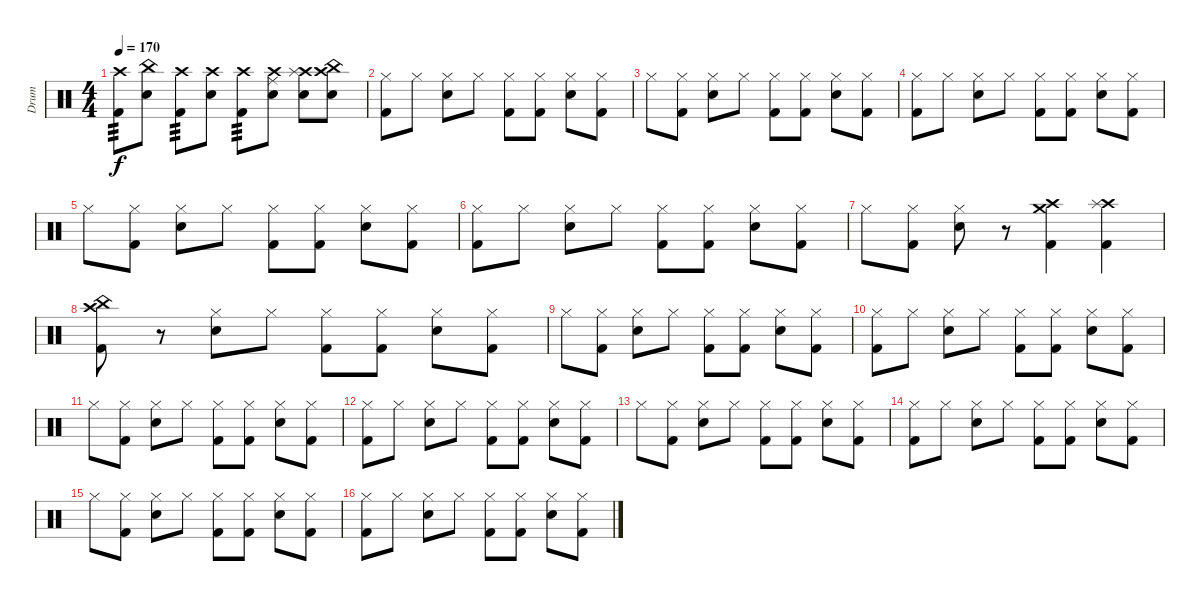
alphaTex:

\track ("Drum" "Drum") {instrument percussion}
\staff {score}
\articulation defaults
\ts (4 4)
\tempo 170
\clef neutral
\ks c
("Crash high (hit)" "Kick (hit) 2").8{tp 3 dy f} ("China (hit)" "Electric Snare (hit)").8 ("Crash high (hit)" "Kick (hit) 2").8{tp 3} ("Crash high (hit)" "Electric Snare (hit)").8 ("Crash high (hit)" "Kick (hit) 2").8{tp 3} ("Crash high (hit)" "Ride (middle)" "Electric Snare (hit)").8 ("Crash high (hit)" "Splash (hit)" "Electric Snare (hit)").8 ("Crash high (hit)" "China (hit)" "Electric Snare (hit)").8 |
("Hi-Hat (closed)" "Kick (hit) 2").8 "Hi-Hat (closed)".8 ("Hi-Hat (closed)" "Electric Snare (hit)").8 "Hi-Hat (closed)".8 ("Hi-Hat (closed)" "Kick (hit) 2").8 ("Hi-Hat (closed)" "Kick (hit) 2").8 ("Hi-Hat (closed)" "Electric Snare (hit)").8 ("Hi-Hat (closed)" "Kick (hit) 2").8 |
"Hi-Hat (closed)".8 ("Hi-Hat (closed)" "Kick (hit) 2").8 ("Hi-Hat (closed)" "Electric Snare (hit)").8 "Hi-Hat (closed)".8 ("Hi-Hat (closed)" "Kick (hit) 2").8 ("Hi-Hat (closed)" "Kick (hit) 2").8 ("Hi-Hat (closed)" "Electric Snare (hit)").8 ("Hi-Hat (closed)" "Kick (hit) 2").8 |
("Hi-Hat (closed)" "Kick (hit) 2").8 "Hi-Hat (closed)".8 ("Hi-Hat (closed)" "Electric Snare (hit)").8 "Hi-Hat (closed)".8 ("Hi-Hat (closed)" "Kick (hit) 2").8 ("Hi-Hat (closed)" "Kick (hit) 2").8 ("Hi-Hat (closed)" "Electric Snare (hit)").8 ("Hi-Hat (closed)" "Kick (hit) 2").8 |
"Hi-Hat (closed)".8 ("Hi-Hat (closed)" "Kick (hit) 2").8 ("Hi-Hat (closed)" "Electric Snare (hit)").8 "Hi-Hat (closed)".8 ("Hi-Hat (closed)" "Kick (hit) 2").8 ("Hi-Hat (closed)" "Kick (hit) 2").8 ("Hi-Hat (closed)" "Electric Snare (hit)").8 ("Hi-Hat (closed)" "Kick (hit) 2").8 |
("Hi-Hat (closed)" "Kick (hit) 2").8 "Hi-Hat (closed)".8 ("Hi-Hat (closed)" "Electric Snare (hit)").8 "Hi-Hat (closed)".8 ("Hi-Hat (closed)" "Kick (hit) 2").8 ("Hi-Hat (closed)" "Kick (hit) 2").8 ("Hi-Hat (closed)" "Electric Snare (hit)").8 ("Hi-Hat (closed)" "Kick (hit) 2").8 |
"Hi-Hat (closed)".8 ("Hi-Hat (closed)" "Kick (hit) 2").8 ("Hi-Hat (closed)" "Electric Snare (hit)").8 r.8 ("Crash high (hit)" "Crash medium (hit)" "Kick (hit) 2").4 ("Crash high (hit)" "Splash (hit)" "Kick (hit) 2").4 |
("Crash high (hit)" "China (hit)" "Kick (hit) 2").8 r.8 ("Hi-Hat (closed)" "Electric Snare (hit)").8 "Hi-Hat (closed)".8 ("Hi-Hat (closed)" "Kick (hit) 2").8 ("Hi-Hat (closed)" "Kick (hit) 2").8 ("Hi-Hat (closed)" "Electric Snare (hit)").8 ("Hi-Hat (closed)" "Kick (hit) 2").8 |
"Hi-Hat (closed)".8 ("Hi-Hat (closed)" "Kick (hit) 2").8 ("Hi-Hat (closed)" "Electric Snare (hit)").8 "Hi-Hat (closed)".8 ("Hi-Hat (closed)" "Kick (hit) 2").8 ("Hi-Hat (closed)" "Kick (hit) 2").8 ("Hi-Hat (closed)" "Electric Snare (hit)").8 ("Hi-Hat (closed)" "Kick (hit) 2").8 |
("Hi-Hat (closed)" "Kick (hit) 2").8 "Hi-Hat (closed)".8 ("Hi-Hat (closed)" "Electric Snare (hit)").8 "Hi-Hat (closed)".8 ("Hi-Hat (closed)" "Kick (hit) 2").8 ("Hi-Hat (closed)" "Kick (hit) 2").8 ("Hi-Hat (closed)" "Electric Snare (hit)").8 ("Hi-Hat (closed)" "Kick (hit) 2").8 |
"Hi-Hat (closed)".8 ("Hi-Hat (closed)" "Kick (hit) 2").8 ("Hi-Hat (closed)" "Electric Snare (hit)").8 "Hi-Hat (closed)".8 ("Hi-Hat (closed)" "Kick (hit) 2").8 ("Hi-Hat (closed)" "Kick (hit) 2").8 ("Hi-Hat (closed)" "Electric Snare (hit)").8 ("Hi-Hat (closed)" "Kick (hit) 2").8 |
("Hi-Hat (closed)" "Kick (hit) 2").8 "Hi-Hat (closed)".8 ("Hi-Hat (closed)" "Electric Snare (hit)").8 "Hi-Hat (closed)".8 ("Hi-Hat (closed)" "Kick (hit) 2").8 ("Hi-Hat (closed)" "Kick (hit) 2").8 ("Hi-Hat (closed)" "Electric Snare (hit)").8 ("Hi-Hat (closed)" "Kick (hit) 2").8 |
"Hi-Hat (closed)".8 ("Hi-Hat (closed)" "Kick (hit) 2").8 ("Hi-Hat (closed)" "Electric Snare (hit)").8 "Hi-Hat (closed)".8 ("Hi-Hat (closed)" "Kick (hit) 2").8 ("Hi-Hat (closed)" "Kick (hit) 2").8 ("Hi-Hat (closed)" "Electric Snare (hit)").8 ("Hi-Hat (closed)" "Kick (hit) 2").8 |
("Hi-Hat (closed)" "Kick (hit) 2").8 "Hi-Hat (closed)".8 ("Hi-Hat (closed)" "Electric Snare (hit)").8 "Hi-Hat (closed)".8 ("Hi-Hat (closed)" "Kick (hit) 2").8 ("Hi-Hat (closed)" "Kick (hit) 2").8 ("Hi-Hat (closed)" "Electric Snare (hit)").8 ("Hi-Hat (closed)" "Kick (hit) 2").8 |
"Hi-Hat (closed)".8 ("Hi-Hat (closed)" "Kick (hit) 2").8 ("Hi-Hat (closed)" "Electric Snare (hit)").8 "Hi-Hat (closed)".8 ("Hi-Hat (closed)" "Kick (hit) 2").8 ("Hi-Hat (closed)" "Kick (hit) 2").8 ("Hi-Hat (closed)" "Electric Snare (hit)").8 ("Hi-Hat (closed)" "Kick (hit) 2").8 |
("Hi-Hat (closed)" "Kick (hit) 2").8 "Hi-Hat (closed)".8 ("Hi-Hat (closed)" "Electric Snare (hit)").8 "Hi-Hat (closed)".8 ("Hi-Hat (closed)" "Kick (hit) 2").8 ("Hi-Hat (closed)" "Kick (hit) 2").8 ("Hi-Hat (closed)" "Electric Snare (hit)").8 ("Hi-Hat (closed)" "Kick (hit) 2").8
